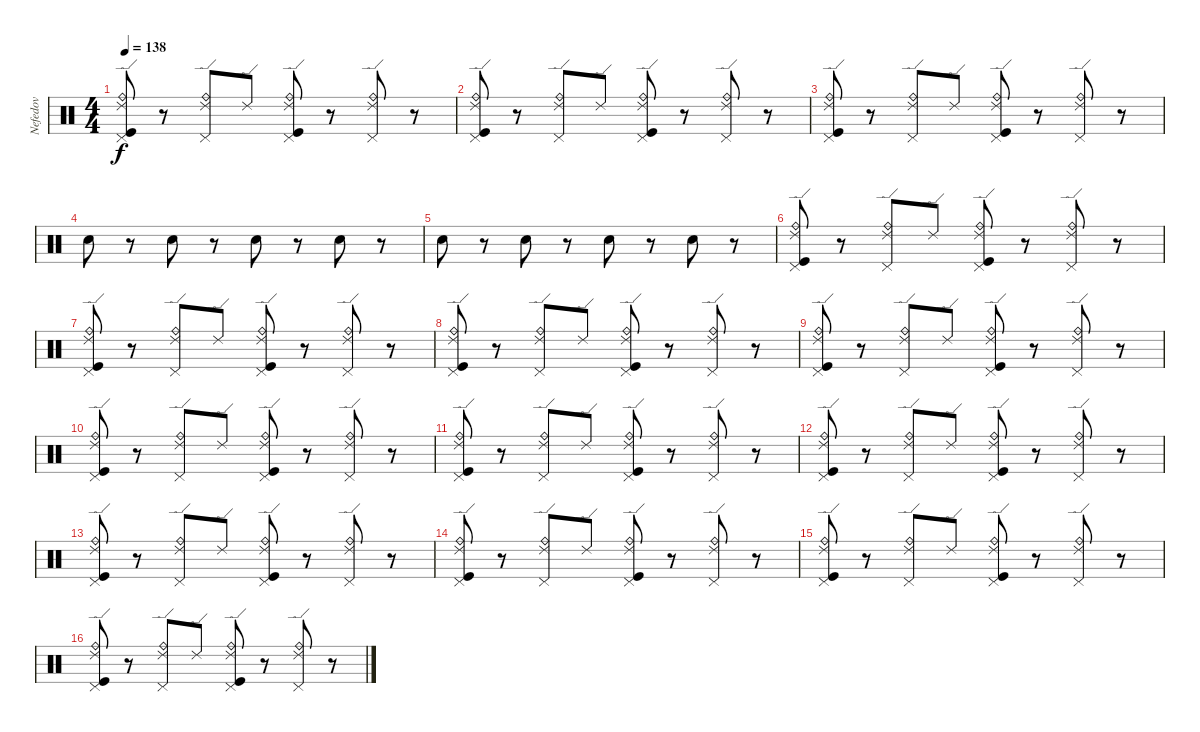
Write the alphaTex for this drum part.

\track ("Nefedov" "Nefedov") {instrument percussion}
\staff {score}
\articulation defaults
\ts (4 4)
\tempo 138
\clef neutral
\ks c
("Pedal Hi-Hat (hit)" "Ride (edge) 2" "Kick (hit)" "Ride (bell)").8{dy f} r.8 ("Pedal Hi-Hat (hit)" "Ride (edge) 2" "Ride (bell)").8 "Ride (edge) 2".8 ("Pedal Hi-Hat (hit)" "Ride (edge) 2" "Kick (hit)" "Ride (bell)").8 r.8 ("Pedal Hi-Hat (hit)" "Ride (edge) 2" "Ride (bell)").8 r.8 |
("Pedal Hi-Hat (hit)" "Ride (edge) 2" "Kick (hit)" "Ride (bell)").8 r.8 ("Pedal Hi-Hat (hit)" "Ride (edge) 2" "Ride (bell)").8 "Ride (edge) 2".8 ("Pedal Hi-Hat (hit)" "Ride (edge) 2" "Kick (hit)" "Ride (bell)").8 r.8 ("Pedal Hi-Hat (hit)" "Ride (edge) 2" "Ride (bell)").8 r.8 |
("Pedal Hi-Hat (hit)" "Ride (edge) 2" "Kick (hit)" "Ride (bell)").8 r.8 ("Pedal Hi-Hat (hit)" "Ride (edge) 2" "Ride (bell)").8 "Ride (edge) 2".8 ("Pedal Hi-Hat (hit)" "Ride (edge) 2" "Kick (hit)" "Ride (bell)").8 r.8 ("Pedal Hi-Hat (hit)" "Ride (edge) 2" "Ride (bell)").8 r.8 |
"Electric Snare (hit)".8 r.8 "Electric Snare (hit)".8 r.8 "Electric Snare (hit)".8 r.8 "Electric Snare (hit)".8 r.8 |
"Electric Snare (hit)".8 r.8 "Electric Snare (hit)".8 r.8 "Electric Snare (hit)".8 r.8 "Electric Snare (hit)".8 r.8 |
("Pedal Hi-Hat (hit)" "Ride (edge) 2" "Kick (hit)" "Ride (bell)").8 r.8 ("Pedal Hi-Hat (hit)" "Ride (edge) 2" "Ride (bell)").8 "Ride (edge) 2".8 ("Pedal Hi-Hat (hit)" "Ride (edge) 2" "Kick (hit)" "Ride (bell)").8 r.8 ("Pedal Hi-Hat (hit)" "Ride (edge) 2" "Ride (bell)").8 r.8 |
("Pedal Hi-Hat (hit)" "Ride (edge) 2" "Kick (hit)" "Ride (bell)").8 r.8 ("Pedal Hi-Hat (hit)" "Ride (edge) 2" "Ride (bell)").8 "Ride (edge) 2".8 ("Pedal Hi-Hat (hit)" "Ride (edge) 2" "Kick (hit)" "Ride (bell)").8 r.8 ("Pedal Hi-Hat (hit)" "Ride (edge) 2" "Ride (bell)").8 r.8 |
("Pedal Hi-Hat (hit)" "Ride (edge) 2" "Kick (hit)" "Ride (bell)").8 r.8 ("Pedal Hi-Hat (hit)" "Ride (edge) 2" "Ride (bell)").8 "Ride (edge) 2".8 ("Pedal Hi-Hat (hit)" "Ride (edge) 2" "Kick (hit)" "Ride (bell)").8 r.8 ("Pedal Hi-Hat (hit)" "Ride (edge) 2" "Ride (bell)").8 r.8 |
("Pedal Hi-Hat (hit)" "Ride (edge) 2" "Kick (hit)" "Ride (bell)").8 r.8 ("Pedal Hi-Hat (hit)" "Ride (edge) 2" "Ride (bell)").8 "Ride (edge) 2".8 ("Pedal Hi-Hat (hit)" "Ride (edge) 2" "Kick (hit)" "Ride (bell)").8 r.8 ("Pedal Hi-Hat (hit)" "Ride (edge) 2" "Ride (bell)").8 r.8 |
("Pedal Hi-Hat (hit)" "Ride (edge) 2" "Kick (hit)" "Ride (bell)").8 r.8 ("Pedal Hi-Hat (hit)" "Ride (edge) 2" "Ride (bell)").8 "Ride (edge) 2".8 ("Pedal Hi-Hat (hit)" "Ride (edge) 2" "Kick (hit)" "Ride (bell)").8 r.8 ("Pedal Hi-Hat (hit)" "Ride (edge) 2" "Ride (bell)").8 r.8 |
("Pedal Hi-Hat (hit)" "Ride (edge) 2" "Kick (hit)" "Ride (bell)").8 r.8 ("Pedal Hi-Hat (hit)" "Ride (edge) 2" "Ride (bell)").8 "Ride (edge) 2".8 ("Pedal Hi-Hat (hit)" "Ride (edge) 2" "Kick (hit)" "Ride (bell)").8 r.8 ("Pedal Hi-Hat (hit)" "Ride (edge) 2" "Ride (bell)").8 r.8 |
("Pedal Hi-Hat (hit)" "Ride (edge) 2" "Kick (hit)" "Ride (bell)").8 r.8 ("Pedal Hi-Hat (hit)" "Ride (edge) 2" "Ride (bell)").8 "Ride (edge) 2".8 ("Pedal Hi-Hat (hit)" "Ride (edge) 2" "Kick (hit)" "Ride (bell)").8 r.8 ("Pedal Hi-Hat (hit)" "Ride (edge) 2" "Ride (bell)").8 r.8 |
("Pedal Hi-Hat (hit)" "Ride (edge) 2" "Kick (hit)" "Ride (bell)").8 r.8 ("Pedal Hi-Hat (hit)" "Ride (edge) 2" "Ride (bell)").8 "Ride (edge) 2".8 ("Pedal Hi-Hat (hit)" "Ride (edge) 2" "Kick (hit)" "Ride (bell)").8 r.8 ("Pedal Hi-Hat (hit)" "Ride (edge) 2" "Ride (bell)").8 r.8 |
("Pedal Hi-Hat (hit)" "Ride (edge) 2" "Kick (hit)" "Ride (bell)").8 r.8 ("Pedal Hi-Hat (hit)" "Ride (edge) 2" "Ride (bell)").8 "Ride (edge) 2".8 ("Pedal Hi-Hat (hit)" "Ride (edge) 2" "Kick (hit)" "Ride (bell)").8 r.8 ("Pedal Hi-Hat (hit)" "Ride (edge) 2" "Ride (bell)").8 r.8 |
("Pedal Hi-Hat (hit)" "Ride (edge) 2" "Kick (hit)" "Ride (bell)").8 r.8 ("Pedal Hi-Hat (hit)" "Ride (edge) 2" "Ride (bell)").8 "Ride (edge) 2".8 ("Pedal Hi-Hat (hit)" "Ride (edge) 2" "Kick (hit)" "Ride (bell)").8 r.8 ("Pedal Hi-Hat (hit)" "Ride (edge) 2" "Ride (bell)").8 r.8 |
("Pedal Hi-Hat (hit)" "Ride (edge) 2" "Kick (hit)" "Ride (bell)").8 r.8 ("Pedal Hi-Hat (hit)" "Ride (edge) 2" "Ride (bell)").8 "Ride (edge) 2".8 ("Pedal Hi-Hat (hit)" "Ride (edge) 2" "Kick (hit)" "Ride (bell)").8 r.8 ("Pedal Hi-Hat (hit)" "Ride (edge) 2" "Ride (bell)").8 r.8
